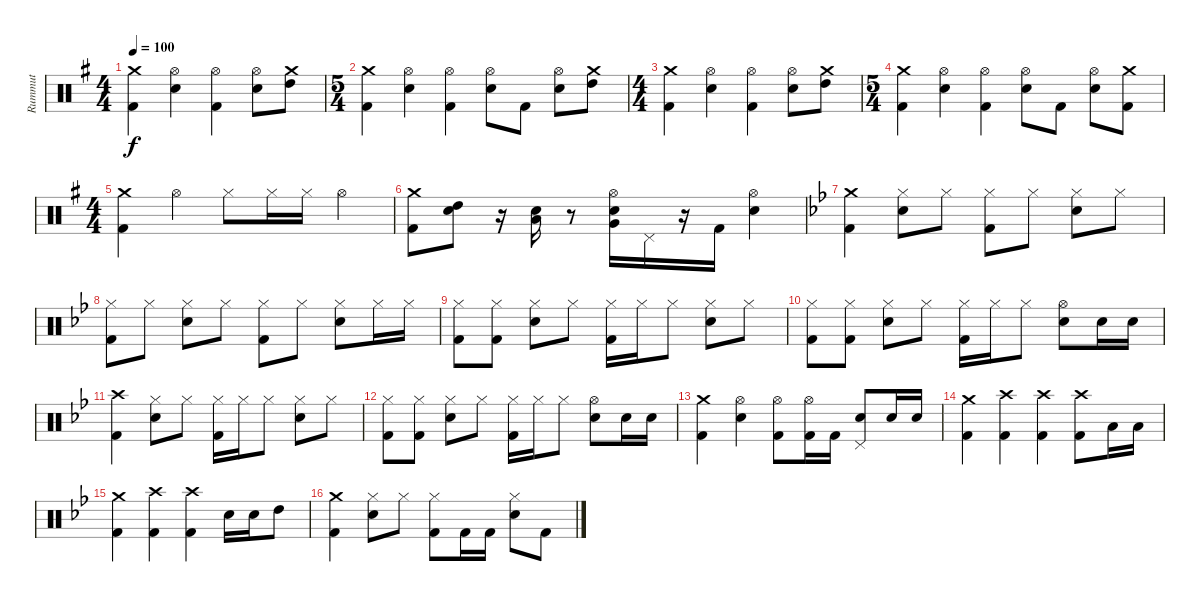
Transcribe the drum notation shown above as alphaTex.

\track ("Rummut" "Rummut") {instrument percussion}
\staff {score}
\articulation defaults
\ts (4 4)
\tempo 100
\clef neutral
\ks g
("Crash medium (hit)" "Kick (hit) 2").4{dy f} ("Hi-Hat (open)" "Snare (hit) 2").4 ("Hi-Hat (open)" "Kick (hit) 2").4 ("Hi-Hat (open)" "Snare (hit) 2").8 ("Crash medium (hit)" "High Tom (hit)").8 |
\ts (5 4)
("Crash medium (hit)" "Kick (hit) 2").4 ("Hi-Hat (open)" "Snare (hit) 2").4 ("Hi-Hat (open)" "Kick (hit) 2").4 ("Hi-Hat (open)" "Snare (hit) 2").8 "Kick (hit) 2".8 ("Hi-Hat (open)" "Snare (hit) 2").8 ("Crash medium (hit)" "High Tom (hit)").8 |
\ts (4 4)
("Crash medium (hit)" "Kick (hit) 2").4 ("Hi-Hat (open)" "Snare (hit) 2").4 ("Hi-Hat (open)" "Kick (hit) 2").4 ("Hi-Hat (open)" "Snare (hit) 2").8 ("Crash medium (hit)" "High Tom (hit)").8 |
\ts (5 4)
("Crash medium (hit)" "Kick (hit) 2").4 ("Hi-Hat (open)" "Snare (hit) 2").4 ("Hi-Hat (open)" "Kick (hit) 2").4 ("Hi-Hat (open)" "Snare (hit) 2").8 "Kick (hit) 2".8 ("Hi-Hat (open)" "Snare (hit) 2").8 ("Crash medium (hit)" "Kick (hit) 2").8 |
\ts (4 4)
("Crash medium (hit)" "Kick (hit) 2").4 "Hi-Hat (open)".4 "Hi-Hat (closed)".8 "Hi-Hat (closed)".16 "Hi-Hat (closed)".16 "Hi-Hat (open)".4 |
("Crash medium (hit)" "Kick (hit) 2").8 ("High Tom (hit)" "Snare (hit) 2").8 r.16 ("Snare (hit) 2" "Low Tom (hit)").16 r.8 ("Hi-Hat (open)" "Snare (hit) 2" "Very Low Tom (hit)").16 "Pedal Hi-Hat (hit)".16 r.16 "Kick (hit) 2".16 ("Hi-Hat (open)" "Snare (hit) 2").4 |
\ks gminor
("Crash medium (hit)" "Kick (hit) 2").4 ("Hi-Hat (closed)" "Snare (hit) 2").8 "Hi-Hat (closed)".8 ("Hi-Hat (closed)" "Kick (hit) 2").8 "Hi-Hat (closed)".8 ("Hi-Hat (closed)" "Snare (hit) 2").8 "Hi-Hat (closed)".8 |
("Hi-Hat (closed)" "Kick (hit) 2").8 "Hi-Hat (closed)".8 ("Hi-Hat (closed)" "Snare (hit) 2").8 "Hi-Hat (closed)".8 ("Hi-Hat (closed)" "Kick (hit) 2").8 "Hi-Hat (closed)".8 ("Hi-Hat (closed)" "Snare (hit) 2").8 "Hi-Hat (closed)".16 "Hi-Hat (closed)".16 |
("Hi-Hat (closed)" "Kick (hit) 2").8 ("Hi-Hat (closed)" "Kick (hit) 2").8 ("Hi-Hat (closed)" "Snare (hit) 2").8 "Hi-Hat (closed)".8 ("Hi-Hat (closed)" "Kick (hit) 2").16 "Hi-Hat (closed)".16 "Hi-Hat (closed)".8 ("Hi-Hat (closed)" "Snare (hit) 2").8 "Hi-Hat (closed)".8 |
("Hi-Hat (closed)" "Kick (hit) 2").8 ("Hi-Hat (closed)" "Kick (hit) 2").8 ("Hi-Hat (closed)" "Snare (hit) 2").8 "Hi-Hat (closed)".8 ("Hi-Hat (closed)" "Kick (hit) 2").16 "Hi-Hat (closed)".16 "Hi-Hat (closed)".8 ("Hi-Hat (open)" "Snare (hit) 2").8 "Snare (hit) 2".16 "Snare (hit) 2".16 |
("Crash high (hit)" "Kick (hit) 2").4 ("Hi-Hat (closed)" "Snare (hit) 2").8 "Hi-Hat (closed)".8 ("Hi-Hat (closed)" "Kick (hit) 2").16 "Hi-Hat (closed)".16 "Hi-Hat (closed)".8 ("Hi-Hat (closed)" "Snare (hit) 2").8 "Hi-Hat (closed)".8 |
("Hi-Hat (closed)" "Kick (hit) 2").8 ("Hi-Hat (closed)" "Kick (hit) 2").8 ("Hi-Hat (closed)" "Snare (hit) 2").8 "Hi-Hat (closed)".8 ("Hi-Hat (closed)" "Kick (hit) 2").16 "Hi-Hat (closed)".16 "Hi-Hat (closed)".8 ("Hi-Hat (open)" "Snare (hit) 2").8 "Snare (hit) 2".16 "Snare (hit) 2".16 |
("Crash medium (hit)" "Kick (hit) 2").4 ("Hi-Hat (open)" "Snare (hit) 2").4 ("Hi-Hat (open)" "Kick (hit) 2").8 ("Hi-Hat (open)" "Kick (hit) 2").16 "Kick (hit) 2".16 ("Pedal Hi-Hat (hit)" "Snare (hit) 2").8 "Snare (hit) 2".16 "Snare (hit) 2".16 |
("Crash medium (hit)" "Kick (hit) 2").4 ("Crash high (hit)" "Kick (hit) 2").4 ("Crash high (hit)" "Kick (hit) 2").4 ("Crash high (hit)" "Kick (hit) 2").8 "Low Tom (hit)".16 "Low Tom (hit)".16 |
("Crash medium (hit)" "Kick (hit) 2").4 ("Crash high (hit)" "Kick (hit) 2").4 ("Crash high (hit)" "Kick (hit) 2").4 "Snare (hit) 2".16 "Snare (hit) 2".16 "High Tom (hit)".8 |
("Crash medium (hit)" "Kick (hit) 2").4 ("Hi-Hat (closed)" "Snare (hit) 2").8 "Hi-Hat (closed)".8 ("Hi-Hat (closed)" "Kick (hit) 2").8 "Kick (hit) 2".16 "Kick (hit) 2".16 ("Hi-Hat (closed)" "Snare (hit) 2").8 "Kick (hit) 2".8
